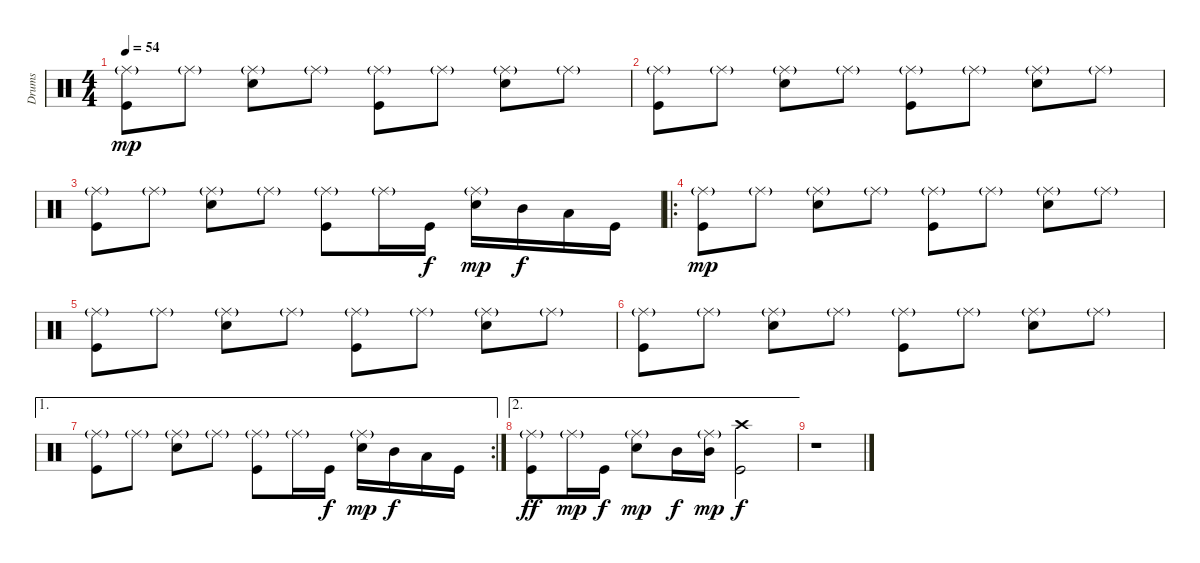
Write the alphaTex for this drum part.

\track ("Drums" "Drums") {instrument percussion}
\staff {score}
\articulation defaults
\ts (4 4)
\tempo 54
\clef neutral
\ks c
("Ride (middle)"{g} "Kick (hit)").8{dy mp} "Ride (middle)"{g}.8 ("Ride (middle)"{g} "Electric Snare (hit)").8 "Ride (middle)"{g}.8 ("Ride (middle)"{g} "Kick (hit)").8 "Ride (middle)"{g}.8 ("Ride (middle)"{g} "Electric Snare (hit)").8 "Ride (middle)"{g}.8 |
("Ride (middle)"{g} "Kick (hit)").8 "Ride (middle)"{g}.8 ("Ride (middle)"{g} "Electric Snare (hit)").8 "Ride (middle)"{g}.8 ("Ride (middle)"{g} "Kick (hit)").8 "Ride (middle)"{g}.8 ("Ride (middle)"{g} "Electric Snare (hit)").8 "Ride (middle)"{g}.8 |
("Ride (middle)"{g} "Kick (hit)").8 "Ride (middle)"{g}.8 ("Ride (middle)"{g} "Electric Snare (hit)").8 "Ride (middle)"{g}.8 ("Ride (middle)"{g} "Kick (hit)").8 "Ride (middle)"{g}.16 "Kick (hit)".16{dy f} ("Ride (middle)"{g} "Electric Snare (hit)").16{dy mp} "Mid Tom (hit)".16{dy f} "Low Tom (hit)".16 "Kick (hit)".16 |
\ro
("Ride (middle)"{g} "Kick (hit)").8{dy mp} "Ride (middle)"{g}.8 ("Ride (middle)"{g} "Electric Snare (hit)").8 "Ride (middle)"{g}.8 ("Ride (middle)"{g} "Kick (hit)").8 "Ride (middle)"{g}.8 ("Ride (middle)"{g} "Electric Snare (hit)").8 "Ride (middle)"{g}.8 |
("Ride (middle)"{g} "Kick (hit)").8 "Ride (middle)"{g}.8 ("Ride (middle)"{g} "Electric Snare (hit)").8 "Ride (middle)"{g}.8 ("Ride (middle)"{g} "Kick (hit)").8 "Ride (middle)"{g}.8 ("Ride (middle)"{g} "Electric Snare (hit)").8 "Ride (middle)"{g}.8 |
("Ride (middle)"{g} "Kick (hit)").8 "Ride (middle)"{g}.8 ("Ride (middle)"{g} "Electric Snare (hit)").8 "Ride (middle)"{g}.8 ("Ride (middle)"{g} "Kick (hit)").8 "Ride (middle)"{g}.8 ("Ride (middle)"{g} "Electric Snare (hit)").8 "Ride (middle)"{g}.8 |
\ae 1
\rc 2
("Ride (middle)"{g} "Kick (hit)").8 "Ride (middle)"{g}.8 ("Ride (middle)"{g} "Electric Snare (hit)").8 "Ride (middle)"{g}.8 ("Ride (middle)"{g} "Kick (hit)").8 "Ride (middle)"{g}.16 "Kick (hit)".16{dy f} ("Ride (middle)"{g} "Electric Snare (hit)").16{dy mp} "Mid Tom (hit)".16{dy f} "Low Tom (hit)".16 "Kick (hit)".16 |
\ae 2
("Ride (middle)"{g} "Kick (hit)").8{dy ff} "Ride (middle)"{g}.16{dy mp} "Kick (hit)".16{dy f} ("Ride (middle)"{g} "Electric Snare (hit)").8{dy mp} "Mid Tom (hit)".16{dy f} ("Ride (middle)"{g} "Mid Tom (hit)").16{dy mp} ("Crash high (hit)" "Kick (hit)").2{dy f} |
r.1
